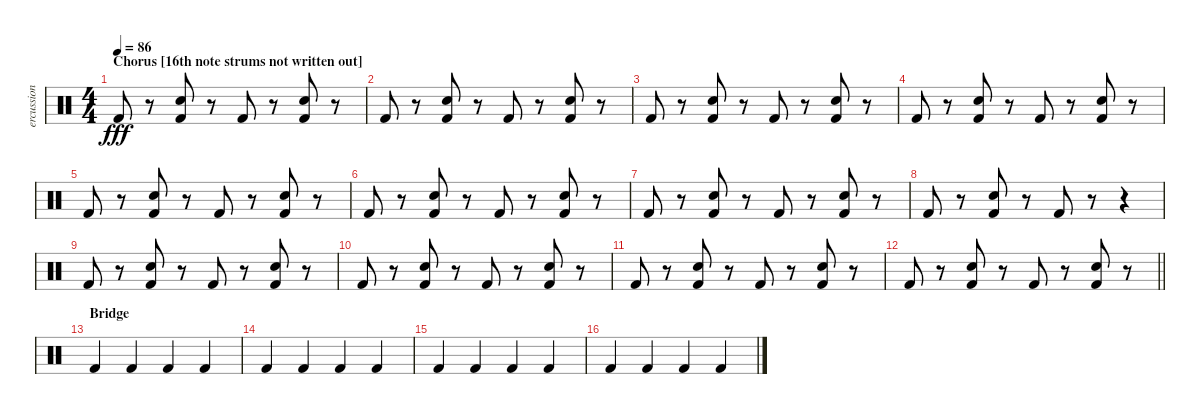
\track ("ercussion" "ercussion") {instrument percussion}
\staff {score}
\articulation defaults
\ts (4 4)
\section ("" "Chorus [16th note strums not written out]")
\tempo 86
\clef neutral
\ks c "Kick (hit) 2".8{dy fff}
r.8 ("Snare (hit) 2" "Kick (hit) 2").8 r.8 "Kick (hit) 2".8 r.8 ("Snare (hit) 2" "Kick (hit) 2").8 r.8 |
"Kick (hit) 2".8 r.8 ("Snare (hit) 2" "Kick (hit) 2").8 r.8 "Kick (hit) 2".8 r.8 ("Snare (hit) 2" "Kick (hit) 2").8 r.8 |
"Kick (hit) 2".8 r.8 ("Snare (hit) 2" "Kick (hit) 2").8 r.8 "Kick (hit) 2".8 r.8 ("Snare (hit) 2" "Kick (hit) 2").8 r.8 |
"Kick (hit) 2".8 r.8 ("Snare (hit) 2" "Kick (hit) 2").8 r.8 "Kick (hit) 2".8 r.8 ("Snare (hit) 2" "Kick (hit) 2").8 r.8 |
"Kick (hit) 2".8 r.8 ("Snare (hit) 2" "Kick (hit) 2").8 r.8 "Kick (hit) 2".8 r.8 ("Snare (hit) 2" "Kick (hit) 2").8 r.8 |
"Kick (hit) 2".8 r.8 ("Snare (hit) 2" "Kick (hit) 2").8 r.8 "Kick (hit) 2".8 r.8 ("Snare (hit) 2" "Kick (hit) 2").8 r.8 |
"Kick (hit) 2".8 r.8 ("Snare (hit) 2" "Kick (hit) 2").8 r.8 "Kick (hit) 2".8 r.8 ("Snare (hit) 2" "Kick (hit) 2").8 r.8 |
"Kick (hit) 2".8 r.8 ("Snare (hit) 2" "Kick (hit) 2").8 r.8 "Kick (hit) 2".8 r.8 r.4 |
"Kick (hit) 2".8 r.8 ("Snare (hit) 2" "Kick (hit) 2").8 r.8 "Kick (hit) 2".8 r.8 ("Snare (hit) 2" "Kick (hit) 2").8 r.8 |
"Kick (hit) 2".8 r.8 ("Snare (hit) 2" "Kick (hit) 2").8 r.8 "Kick (hit) 2".8 r.8 ("Snare (hit) 2" "Kick (hit) 2").8 r.8 |
"Kick (hit) 2".8 r.8 ("Snare (hit) 2" "Kick (hit) 2").8 r.8 "Kick (hit) 2".8 r.8 ("Snare (hit) 2" "Kick (hit) 2").8 r.8 |
\barLineRight lightlight "Kick (hit) 2".8
r.8 ("Snare (hit) 2" "Kick (hit) 2").8 r.8 "Kick (hit) 2".8 r.8 ("Snare (hit) 2" "Kick (hit) 2").8 r.8 |
\section ("" "Bridge")
"Kick (hit) 2".4 "Kick (hit) 2".4 "Kick (hit) 2".4 "Kick (hit) 2".4 |
"Kick (hit) 2".4 "Kick (hit) 2".4 "Kick (hit) 2".4 "Kick (hit) 2".4 |
"Kick (hit) 2".4 "Kick (hit) 2".4 "Kick (hit) 2".4 "Kick (hit) 2".4 |
"Kick (hit) 2".4 "Kick (hit) 2".4 "Kick (hit) 2".4 "Kick (hit) 2".4
